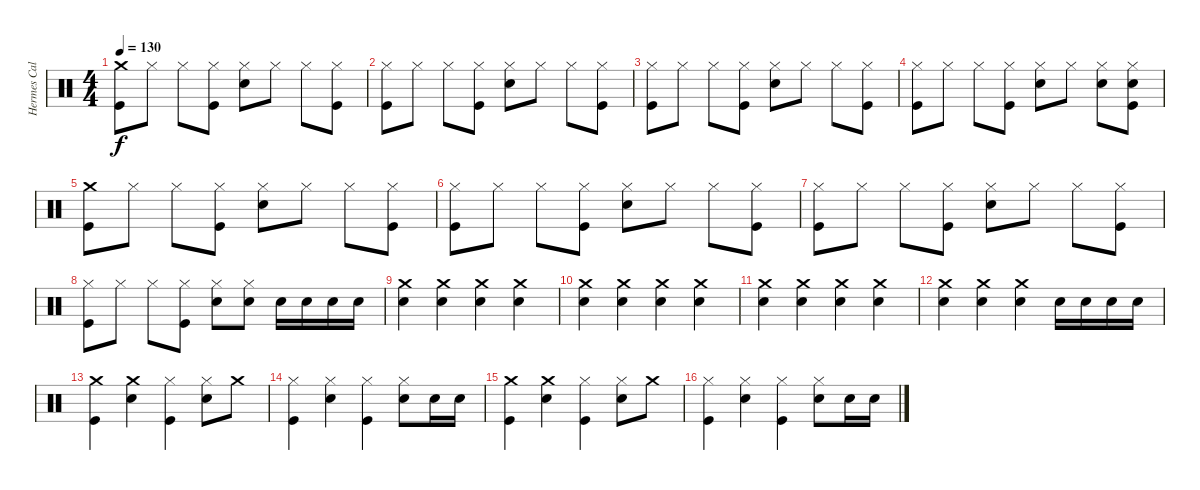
\track ("Hermes Calabria" "Hermes Cal") {instrument percussion}
\staff {score}
\articulation defaults
\ts (4 4)
\tempo 130
\clef neutral
\ks c
("Crash medium (hit)" "Kick (hit)").8{dy f} "Hi-Hat (closed)".8 "Hi-Hat (closed)".8 ("Hi-Hat (closed)" "Kick (hit)").8 ("Hi-Hat (closed)" "Snare (hit) 2").8 "Hi-Hat (closed)".8 "Hi-Hat (closed)".8 ("Hi-Hat (closed)" "Kick (hit)").8 |
("Hi-Hat (closed)" "Kick (hit)").8 "Hi-Hat (closed)".8 "Hi-Hat (closed)".8 ("Hi-Hat (closed)" "Kick (hit)").8 ("Hi-Hat (closed)" "Snare (hit) 2").8 "Hi-Hat (closed)".8 "Hi-Hat (closed)".8 ("Hi-Hat (closed)" "Kick (hit)").8 |
("Hi-Hat (closed)" "Kick (hit)").8 "Hi-Hat (closed)".8 "Hi-Hat (closed)".8 ("Hi-Hat (closed)" "Kick (hit)").8 ("Hi-Hat (closed)" "Snare (hit) 2").8 "Hi-Hat (closed)".8 "Hi-Hat (closed)".8 ("Hi-Hat (closed)" "Kick (hit)").8 |
("Hi-Hat (closed)" "Kick (hit)").8 "Hi-Hat (closed)".8 "Hi-Hat (closed)".8 ("Hi-Hat (closed)" "Kick (hit)").8 ("Hi-Hat (closed)" "Snare (hit) 2").8 "Hi-Hat (closed)".8 ("Hi-Hat (closed)" "Snare (hit) 2").8 ("Hi-Hat (closed)" "Snare (hit) 2" "Kick (hit)").8 |
("Crash medium (hit)" "Kick (hit)").8 "Hi-Hat (closed)".8 "Hi-Hat (closed)".8 ("Hi-Hat (closed)" "Kick (hit)").8 ("Hi-Hat (closed)" "Snare (hit) 2").8 "Hi-Hat (closed)".8 "Hi-Hat (closed)".8 ("Hi-Hat (closed)" "Kick (hit)").8 |
("Hi-Hat (closed)" "Kick (hit)").8 "Hi-Hat (closed)".8 "Hi-Hat (closed)".8 ("Hi-Hat (closed)" "Kick (hit)").8 ("Hi-Hat (closed)" "Snare (hit) 2").8 "Hi-Hat (closed)".8 "Hi-Hat (closed)".8 ("Hi-Hat (closed)" "Kick (hit)").8 |
("Hi-Hat (closed)" "Kick (hit)").8 "Hi-Hat (closed)".8 "Hi-Hat (closed)".8 ("Hi-Hat (closed)" "Kick (hit)").8 ("Hi-Hat (closed)" "Snare (hit) 2").8 "Hi-Hat (closed)".8 "Hi-Hat (closed)".8 ("Hi-Hat (closed)" "Kick (hit)").8 |
("Hi-Hat (closed)" "Kick (hit)").8 "Hi-Hat (closed)".8 "Hi-Hat (closed)".8 ("Hi-Hat (closed)" "Kick (hit)").8 ("Hi-Hat (closed)" "Snare (hit) 2").8 ("Hi-Hat (closed)" "Snare (hit) 2").8 "Snare (hit) 2".16 "Snare (hit) 2".16 "Snare (hit) 2".16 "Snare (hit) 2".16 |
("Crash medium (hit)" "Snare (hit) 2").4 ("Crash medium (hit)" "Snare (hit) 2").4 ("Crash medium (hit)" "Snare (hit) 2").4 ("Crash medium (hit)" "Snare (hit) 2").4 |
("Crash medium (hit)" "Snare (hit) 2").4 ("Crash medium (hit)" "Snare (hit) 2").4 ("Crash medium (hit)" "Snare (hit) 2").4 ("Crash medium (hit)" "Snare (hit) 2").4 |
("Crash medium (hit)" "Snare (hit) 2").4 ("Crash medium (hit)" "Snare (hit) 2").4 ("Crash medium (hit)" "Snare (hit) 2").4 ("Crash medium (hit)" "Snare (hit) 2").4 |
("Crash medium (hit)" "Snare (hit) 2").4 ("Crash medium (hit)" "Snare (hit) 2").4 ("Crash medium (hit)" "Snare (hit) 2").4 "Snare (hit) 2".16 "Snare (hit) 2".16 "Snare (hit) 2".16 "Snare (hit) 2".16 |
("Crash medium (hit)" "Kick (hit)").4 ("Crash medium (hit)" "Snare (hit) 2").4 ("Hi-Hat (closed)" "Kick (hit)").4 ("Hi-Hat (closed)" "Snare (hit) 2").8 "Crash medium (hit)".8 |
("Hi-Hat (closed)" "Kick (hit)").4 ("Hi-Hat (closed)" "Snare (hit) 2").4 ("Hi-Hat (closed)" "Kick (hit)").4 ("Hi-Hat (closed)" "Snare (hit) 2").8 "Snare (hit) 2".16 "Snare (hit) 2".16 |
("Crash medium (hit)" "Kick (hit)").4 ("Crash medium (hit)" "Snare (hit) 2").4 ("Hi-Hat (closed)" "Kick (hit)").4 ("Hi-Hat (closed)" "Snare (hit) 2").8 "Crash medium (hit)".8 |
("Hi-Hat (closed)" "Kick (hit)").4 ("Hi-Hat (closed)" "Snare (hit) 2").4 ("Hi-Hat (closed)" "Kick (hit)").4 ("Hi-Hat (closed)" "Snare (hit) 2").8 "Snare (hit) 2".16 "Snare (hit) 2".16
